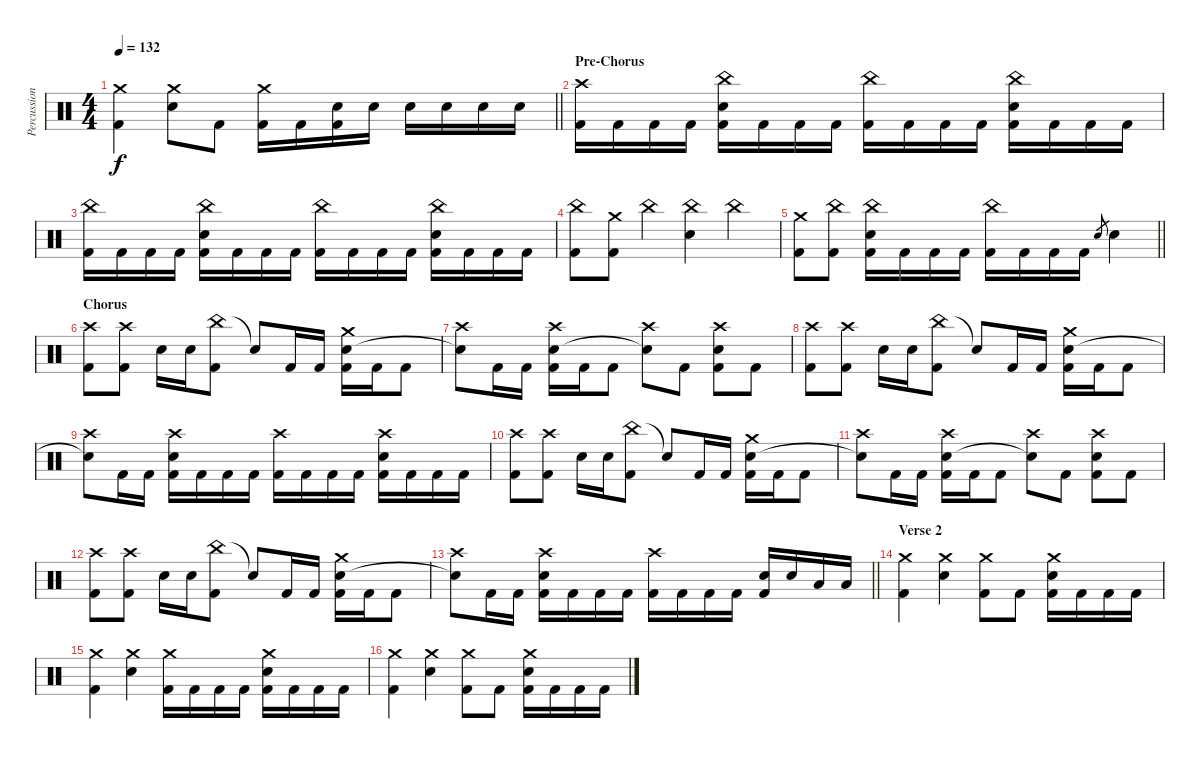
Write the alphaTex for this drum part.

\track ("Percussion" "Percussion") {instrument percussion}
\staff {score}
\articulation defaults
\ts (4 4)
\tempo 132
\clef neutral
\barLineRight lightlight
\ks c
("Crash medium (hit)" "Kick (hit) 2").4{dy f} ("Crash medium (hit)" "Electric Snare (hit)").8 "Kick (hit) 2".8 ("Crash medium (hit)" "Kick (hit) 2").16 "Kick (hit) 2".16 ("Electric Snare (hit)" "Kick (hit) 2").16 "Electric Snare (hit)".16 "Electric Snare (hit)".16 "Electric Snare (hit)".16 "Electric Snare (hit)".16 "Electric Snare (hit)".16 |
\section ("" "Pre-Chorus")
("Crash high (hit)" "Kick (hit) 2").16 "Kick (hit) 2".16 "Kick (hit) 2".16 "Kick (hit) 2".16 ("China (hit)" "Electric Snare (hit)" "Kick (hit) 2").16 "Kick (hit) 2".16 "Kick (hit) 2".16 "Kick (hit) 2".16 ("China (hit)" "Kick (hit) 2").16 "Kick (hit) 2".16 "Kick (hit) 2".16 "Kick (hit) 2".16 ("China (hit)" "Electric Snare (hit)" "Kick (hit) 2").16 "Kick (hit) 2".16 "Kick (hit) 2".16 "Kick (hit) 2".16 |
("China (hit)" "Kick (hit) 2").16 "Kick (hit) 2".16 "Kick (hit) 2".16 "Kick (hit) 2".16 ("China (hit)" "Electric Snare (hit)" "Kick (hit) 2").16 "Kick (hit) 2".16 "Kick (hit) 2".16 "Kick (hit) 2".16 ("China (hit)" "Kick (hit) 2").16 "Kick (hit) 2".16 "Kick (hit) 2".16 "Kick (hit) 2".16 ("China (hit)" "Electric Snare (hit)" "Kick (hit) 2").16 "Kick (hit) 2".16 "Kick (hit) 2".16 "Kick (hit) 2".16 |
("China (hit)" "Kick (hit) 2").8 ("Crash medium (hit)" "Kick (hit) 2").8 "China (hit)".4 ("China (hit)" "Electric Snare (hit)").4 "China (hit)".4 |
\barLineRight lightlight
("Crash medium (hit)" "Kick (hit) 2").8 ("China (hit)" "Kick (hit) 2").8 ("China (hit)" "Electric Snare (hit)" "Kick (hit) 2").16 "Kick (hit) 2".16 "Kick (hit) 2".16 "Kick (hit) 2".16 ("China (hit)" "Kick (hit) 2").16 "Kick (hit) 2".16 "Kick (hit) 2".16 "Kick (hit) 2".16 "Electric Snare (hit)".8{gr} "Electric Snare (hit)".4 |
\section ("" "Chorus")
("Crash high (hit)" "Kick (hit) 2").8 ("Crash high (hit)" "Kick (hit) 2").8 "Electric Snare (hit)".16 "Electric Snare (hit)".16 ("China (hit)" "Kick (hit) 2").8 "Snare (hit)"{t}.8 "Kick (hit) 2".16 "Kick (hit) 2".16 ("Crash medium (hit)" "Electric Snare (hit)" "Kick (hit) 2").16 "Kick (hit) 2".16 "Kick (hit) 2".8 |
("Crash high (hit)" "Snare (hit)"{t}).8 "Kick (hit) 2".16 "Kick (hit) 2".16 ("Crash high (hit)" "Electric Snare (hit)" "Kick (hit) 2").16 "Kick (hit) 2".16 "Kick (hit) 2".8 ("Crash high (hit)" "Snare (hit)"{t}).8 "Kick (hit) 2".8 ("Crash high (hit)" "Electric Snare (hit)" "Kick (hit) 2").8 "Kick (hit) 2".8 |
("Crash high (hit)" "Kick (hit) 2").8 ("Crash high (hit)" "Kick (hit) 2").8 "Electric Snare (hit)".16 "Electric Snare (hit)".16 ("China (hit)" "Kick (hit) 2").8 "Snare (hit)"{t}.8 "Kick (hit) 2".16 "Kick (hit) 2".16 ("Crash medium (hit)" "Electric Snare (hit)" "Kick (hit) 2").16 "Kick (hit) 2".16 "Kick (hit) 2".8 |
("Crash high (hit)" "Snare (hit)"{t}).8 "Kick (hit) 2".16 "Kick (hit) 2".16 ("Crash high (hit)" "Electric Snare (hit)" "Kick (hit) 2").16 "Kick (hit) 2".16 "Kick (hit) 2".16 "Kick (hit) 2".16 ("Crash high (hit)" "Kick (hit) 2").16 "Kick (hit) 2".16 "Kick (hit) 2".16 "Kick (hit) 2".16 ("Crash high (hit)" "Electric Snare (hit)" "Kick (hit) 2").16 "Kick (hit) 2".16 "Kick (hit) 2".16 "Kick (hit) 2".16 |
("Crash high (hit)" "Kick (hit) 2").8 ("Crash high (hit)" "Kick (hit) 2").8 "Electric Snare (hit)".16 "Electric Snare (hit)".16 ("China (hit)" "Kick (hit) 2").8 "Snare (hit)"{t}.8 "Kick (hit) 2".16 "Kick (hit) 2".16 ("Crash medium (hit)" "Electric Snare (hit)" "Kick (hit) 2").16 "Kick (hit) 2".16 "Kick (hit) 2".8 |
("Crash high (hit)" "Snare (hit)"{t}).8 "Kick (hit) 2".16 "Kick (hit) 2".16 ("Crash high (hit)" "Electric Snare (hit)" "Kick (hit) 2").16 "Kick (hit) 2".16 "Kick (hit) 2".8 ("Crash high (hit)" "Snare (hit)"{t}).8 "Kick (hit) 2".8 ("Crash high (hit)" "Electric Snare (hit)" "Kick (hit) 2").8 "Kick (hit) 2".8 |
("Crash high (hit)" "Kick (hit) 2").8 ("Crash high (hit)" "Kick (hit) 2").8 "Electric Snare (hit)".16 "Electric Snare (hit)".16 ("China (hit)" "Kick (hit) 2").8 "Snare (hit)"{t}.8 "Kick (hit) 2".16 "Kick (hit) 2".16 ("Crash medium (hit)" "Electric Snare (hit)" "Kick (hit) 2").16 "Kick (hit) 2".16 "Kick (hit) 2".8 |
\barLineRight lightlight
("Crash high (hit)" "Snare (hit)"{t}).8 "Kick (hit) 2".16 "Kick (hit) 2".16 ("Crash high (hit)" "Electric Snare (hit)" "Kick (hit) 2").16 "Kick (hit) 2".16 "Kick (hit) 2".16 "Kick (hit) 2".16 ("Crash high (hit)" "Kick (hit) 2").16 "Kick (hit) 2".16 "Kick (hit) 2".16 "Kick (hit) 2".16 ("Electric Snare (hit)" "Kick (hit) 2").16 "Electric Snare (hit)".16 "Low Tom (hit)".16 "Low Tom (hit)".16 |
\section ("" "Verse 2")
("Crash medium (hit)" "Kick (hit) 2").4 ("Crash medium (hit)" "Electric Snare (hit)").4 ("Crash medium (hit)" "Kick (hit) 2").8 "Kick (hit) 2".8 ("Crash medium (hit)" "Electric Snare (hit)" "Kick (hit) 2").16 "Kick (hit) 2".16 "Kick (hit) 2".16 "Kick (hit) 2".16 |
("Crash medium (hit)" "Kick (hit) 2").4 ("Crash medium (hit)" "Electric Snare (hit)").4 ("Crash medium (hit)" "Kick (hit) 2").16 "Kick (hit) 2".16 "Kick (hit) 2".16 "Kick (hit) 2".16 ("Crash medium (hit)" "Electric Snare (hit)" "Kick (hit) 2").16 "Kick (hit) 2".16 "Kick (hit) 2".16 "Kick (hit) 2".16 |
("Crash medium (hit)" "Kick (hit) 2").4 ("Crash medium (hit)" "Electric Snare (hit)").4 ("Crash medium (hit)" "Kick (hit) 2").8 "Kick (hit) 2".8 ("Crash medium (hit)" "Electric Snare (hit)" "Kick (hit) 2").16 "Kick (hit) 2".16 "Kick (hit) 2".16 "Kick (hit) 2".16
